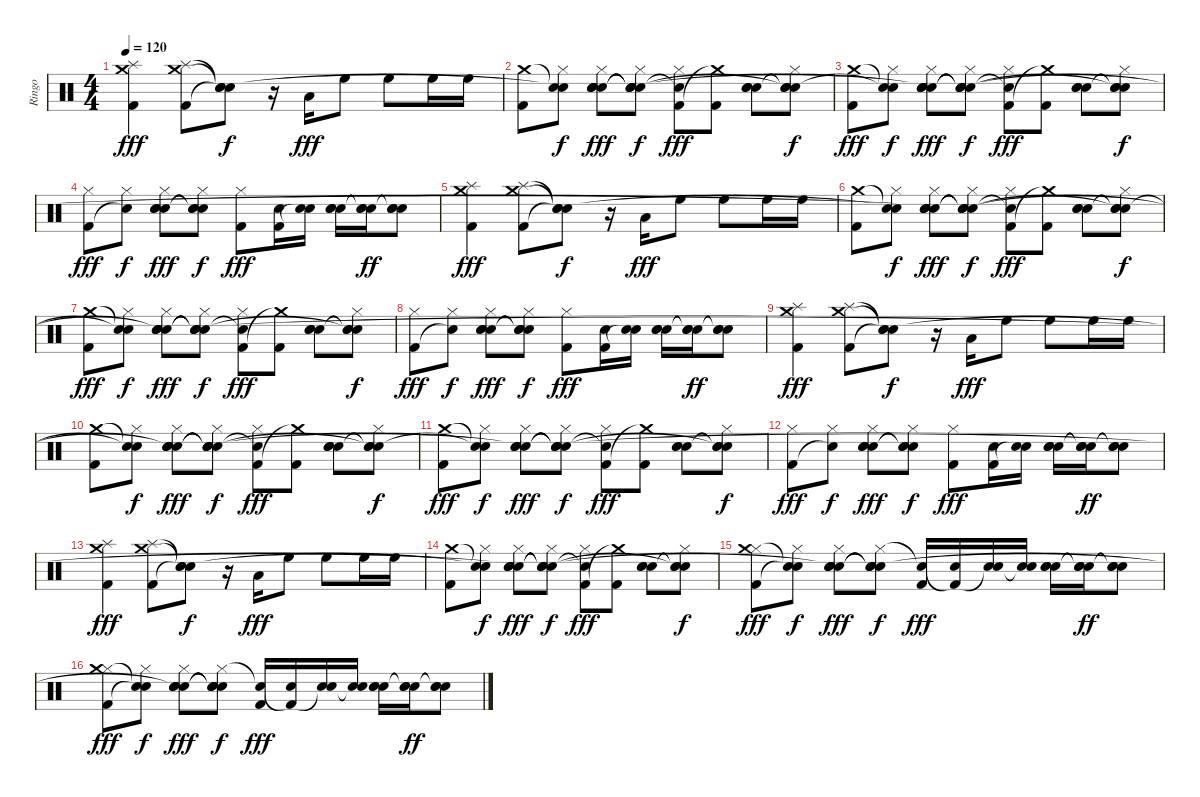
\track ("Ringo" "Ringo") {instrument percussion}
\staff {score}
\articulation defaults
\ts (4 4)
\tempo 120
\clef neutral
\ks c
("Crash medium (hit)" "Splash (hit)" "Kick (hit) 2").4{dy fff} ("Crash medium (hit)" "Splash (hit)" "Kick (hit) 2").8 ("Snare (hit)"{t} "Snare (hit)"{t} "Snare (hit)"{t}).8{dy f} r.16 "Low Floor Tom (hit)".16{dy fff} "High Floor Tom (hit)".8 "High Floor Tom (hit)".8 "High Floor Tom (hit)".16 "High Floor Tom (hit)".16 |
("Kick (hit) 2" "Crash medium (hit)").8 ("Hi-Hat (closed)" "Snare (hit)"{t} "Snare (hit)"{t}).8{dy f} ("Hand Clap (hit)" "Hi-Hat (closed)" "Electric Snare (hit)" "Hand Clap (hit)" "Snare (hit)"{t}).8{dy fff} ("Snare (hit)"{t} "Hi-Hat (closed)" "Snare (hit)"{t} "Snare (hit)"{t} "Snare (hit)"{t}).8{dy f} ("Hi-Hat (closed)" "Kick (hit) 2" "Snare (hit)"{t}).8{dy fff} ("Kick (hit) 2" "Crash medium (hit)"{t}).8 ("Hand Clap (hit)" "Electric Snare (hit)" "Hand Clap (hit)").8 ("Snare (hit)"{t} "Hi-Hat (closed)" "Snare (hit)"{t} "Snare (hit)"{t}).8{dy f} |
("Kick (hit) 2" "Crash medium (hit)").8{dy fff} ("Hi-Hat (closed)" "Snare (hit)"{t} "Snare (hit)"{t}).8{dy f} ("Hand Clap (hit)" "Hi-Hat (closed)" "Electric Snare (hit)" "Hand Clap (hit)" "Snare (hit)"{t}).8{dy fff} ("Snare (hit)"{t} "Hi-Hat (closed)" "Snare (hit)"{t} "Snare (hit)"{t} "Snare (hit)"{t}).8{dy f} ("Hi-Hat (closed)" "Kick (hit) 2" "Snare (hit)"{t}).8{dy fff} ("Kick (hit) 2" "Crash medium (hit)"{t}).8 ("Hand Clap (hit)" "Electric Snare (hit)" "Hand Clap (hit)").8 ("Snare (hit)"{t} "Hi-Hat (closed)" "Snare (hit)"{t} "Snare (hit)"{t}).8{dy f} |
("Hi-Hat (closed)" "Kick (hit) 2").8{dy fff} ("Hi-Hat (closed)" "Snare (hit)"{t}).8{dy f} ("Hand Clap (hit)" "Hi-Hat (closed)" "Electric Snare (hit)" "Hand Clap (hit)").8{dy fff} ("Snare (hit)"{t} "Hi-Hat (closed)" "Snare (hit)"{t} "Snare (hit)"{t}).8{dy f} ("Hi-Hat (closed)" "Kick (hit) 2").8{dy fff} ("Electric Snare (hit)" "Kick (hit) 2").16 ("Electric Snare (hit)" "Snare (hit)"{t}).16 ("Hand Clap (hit)" "Electric Snare (hit)" "Hand Clap (hit)").16 ("Snare (hit)"{t} "Electric Snare (hit)" "Snare (hit)"{t}).16{dy ff} ("Snare (hit)"{t} "Electric Snare (hit)" "Snare (hit)"{t}).8 |
("Crash medium (hit)" "Splash (hit)" "Kick (hit) 2").4{dy fff} ("Crash medium (hit)" "Splash (hit)" "Kick (hit) 2").8 ("Snare (hit)"{t} "Snare (hit)"{t} "Snare (hit)"{t}).8{dy f} r.16 "Low Floor Tom (hit)".16{dy fff} "High Floor Tom (hit)".8 "High Floor Tom (hit)".8 "High Floor Tom (hit)".16 "High Floor Tom (hit)".16 |
("Kick (hit) 2" "Crash medium (hit)").8 ("Hi-Hat (closed)" "Snare (hit)"{t} "Snare (hit)"{t}).8{dy f} ("Hand Clap (hit)" "Hi-Hat (closed)" "Electric Snare (hit)" "Hand Clap (hit)" "Snare (hit)"{t}).8{dy fff} ("Snare (hit)"{t} "Hi-Hat (closed)" "Snare (hit)"{t} "Snare (hit)"{t} "Snare (hit)"{t}).8{dy f} ("Hi-Hat (closed)" "Kick (hit) 2" "Snare (hit)"{t}).8{dy fff} ("Kick (hit) 2" "Crash medium (hit)"{t}).8 ("Hand Clap (hit)" "Electric Snare (hit)" "Hand Clap (hit)").8 ("Snare (hit)"{t} "Hi-Hat (closed)" "Snare (hit)"{t} "Snare (hit)"{t}).8{dy f} |
("Kick (hit) 2" "Crash medium (hit)").8{dy fff} ("Hi-Hat (closed)" "Snare (hit)"{t} "Snare (hit)"{t}).8{dy f} ("Hand Clap (hit)" "Hi-Hat (closed)" "Electric Snare (hit)" "Hand Clap (hit)" "Snare (hit)"{t}).8{dy fff} ("Snare (hit)"{t} "Hi-Hat (closed)" "Snare (hit)"{t} "Snare (hit)"{t} "Snare (hit)"{t}).8{dy f} ("Hi-Hat (closed)" "Kick (hit) 2" "Snare (hit)"{t}).8{dy fff} ("Kick (hit) 2" "Crash medium (hit)"{t}).8 ("Hand Clap (hit)" "Electric Snare (hit)" "Hand Clap (hit)").8 ("Snare (hit)"{t} "Hi-Hat (closed)" "Snare (hit)"{t} "Snare (hit)"{t}).8{dy f} |
("Hi-Hat (closed)" "Kick (hit) 2").8{dy fff} ("Hi-Hat (closed)" "Snare (hit)"{t}).8{dy f} ("Hand Clap (hit)" "Hi-Hat (closed)" "Electric Snare (hit)" "Hand Clap (hit)").8{dy fff} ("Snare (hit)"{t} "Hi-Hat (closed)" "Snare (hit)"{t} "Snare (hit)"{t}).8{dy f} ("Hi-Hat (closed)" "Kick (hit) 2").8{dy fff} ("Electric Snare (hit)" "Kick (hit) 2").16 ("Electric Snare (hit)" "Snare (hit)"{t}).16 ("Hand Clap (hit)" "Electric Snare (hit)" "Hand Clap (hit)").16 ("Snare (hit)"{t} "Electric Snare (hit)" "Snare (hit)"{t}).16{dy ff} ("Snare (hit)"{t} "Electric Snare (hit)" "Snare (hit)"{t}).8 |
("Crash medium (hit)" "Splash (hit)" "Kick (hit) 2").4{dy fff} ("Crash medium (hit)" "Splash (hit)" "Kick (hit) 2").8 ("Snare (hit)"{t} "Snare (hit)"{t} "Snare (hit)"{t}).8{dy f} r.16 "Low Floor Tom (hit)".16{dy fff} "High Floor Tom (hit)".8 "High Floor Tom (hit)".8 "High Floor Tom (hit)".16 "High Floor Tom (hit)".16 |
("Kick (hit) 2" "Crash medium (hit)").8 ("Hi-Hat (closed)" "Snare (hit)"{t} "Snare (hit)"{t}).8{dy f} ("Hand Clap (hit)" "Hi-Hat (closed)" "Electric Snare (hit)" "Hand Clap (hit)" "Snare (hit)"{t}).8{dy fff} ("Snare (hit)"{t} "Hi-Hat (closed)" "Snare (hit)"{t} "Snare (hit)"{t} "Snare (hit)"{t}).8{dy f} ("Hi-Hat (closed)" "Kick (hit) 2" "Snare (hit)"{t}).8{dy fff} ("Kick (hit) 2" "Crash medium (hit)"{t}).8 ("Hand Clap (hit)" "Electric Snare (hit)" "Hand Clap (hit)").8 ("Snare (hit)"{t} "Hi-Hat (closed)" "Snare (hit)"{t} "Snare (hit)"{t}).8{dy f} |
("Kick (hit) 2" "Crash medium (hit)").8{dy fff} ("Hi-Hat (closed)" "Snare (hit)"{t} "Snare (hit)"{t}).8{dy f} ("Hand Clap (hit)" "Hi-Hat (closed)" "Electric Snare (hit)" "Hand Clap (hit)" "Snare (hit)"{t}).8{dy fff} ("Snare (hit)"{t} "Hi-Hat (closed)" "Snare (hit)"{t} "Snare (hit)"{t} "Snare (hit)"{t}).8{dy f} ("Hi-Hat (closed)" "Kick (hit) 2" "Snare (hit)"{t}).8{dy fff} ("Kick (hit) 2" "Crash medium (hit)"{t}).8 ("Hand Clap (hit)" "Electric Snare (hit)" "Hand Clap (hit)").8 ("Snare (hit)"{t} "Hi-Hat (closed)" "Snare (hit)"{t} "Snare (hit)"{t}).8{dy f} |
("Hi-Hat (closed)" "Kick (hit) 2").8{dy fff} ("Hi-Hat (closed)" "Snare (hit)"{t}).8{dy f} ("Hand Clap (hit)" "Hi-Hat (closed)" "Electric Snare (hit)" "Hand Clap (hit)").8{dy fff} ("Snare (hit)"{t} "Hi-Hat (closed)" "Snare (hit)"{t} "Snare (hit)"{t}).8{dy f} ("Hi-Hat (closed)" "Kick (hit) 2").8{dy fff} ("Electric Snare (hit)" "Kick (hit) 2").16 ("Electric Snare (hit)" "Snare (hit)"{t}).16 ("Hand Clap (hit)" "Electric Snare (hit)" "Hand Clap (hit)").16 ("Snare (hit)"{t} "Electric Snare (hit)" "Snare (hit)"{t}).16{dy ff} ("Snare (hit)"{t} "Electric Snare (hit)" "Snare (hit)"{t}).8 |
("Crash medium (hit)" "Splash (hit)" "Kick (hit) 2").4{dy fff} ("Crash medium (hit)" "Splash (hit)" "Kick (hit) 2").8 ("Snare (hit)"{t} "Snare (hit)"{t} "Snare (hit)"{t}).8{dy f} r.16 "Low Floor Tom (hit)".16{dy fff} "High Floor Tom (hit)".8 "High Floor Tom (hit)".8 "High Floor Tom (hit)".16 "High Floor Tom (hit)".16 |
("Kick (hit) 2" "Crash medium (hit)").8 ("Hi-Hat (closed)" "Snare (hit)"{t} "Snare (hit)"{t}).8{dy f} ("Hand Clap (hit)" "Hi-Hat (closed)" "Electric Snare (hit)" "Hand Clap (hit)" "Snare (hit)"{t}).8{dy fff} ("Snare (hit)"{t} "Hi-Hat (closed)" "Snare (hit)"{t} "Snare (hit)"{t} "Snare (hit)"{t}).8{dy f} ("Hi-Hat (closed)" "Kick (hit) 2" "Snare (hit)"{t}).8{dy fff} ("Kick (hit) 2" "Crash medium (hit)"{t}).8 ("Hand Clap (hit)" "Electric Snare (hit)" "Hand Clap (hit)").8 ("Snare (hit)"{t} "Hi-Hat (closed)" "Snare (hit)"{t} "Snare (hit)"{t}).8{dy f} |
("Hi-Hat (closed)" "Kick (hit) 2" "Crash medium (hit)").8{dy fff} ("Hi-Hat (closed)" "Snare (hit)"{t} "Snare (hit)"{t}).8{dy f} ("Hand Clap (hit)" "Hi-Hat (closed)" "Electric Snare (hit)" "Hand Clap (hit)" "Snare (hit)"{t}).8{dy fff} ("Snare (hit)"{t} "Hi-Hat (closed)" "Snare (hit)"{t} "Snare (hit)"{t} "Snare (hit)"{t}).8{dy f} ("Kick (hit) 2" "Snare (hit)"{t}).16{dy fff} ("Electric Snare (hit)" "Kick (hit) 2"{t}).16 ("Electric Snare (hit)" "Snare (hit)"{t}).16 ("Electric Snare (hit)" "Electric Snare (hit)"{t}).16 ("Hand Clap (hit)" "Electric Snare (hit)" "Hand Clap (hit)").16 ("Snare (hit)"{t} "Electric Snare (hit)" "Snare (hit)"{t}).16{dy ff} ("Snare (hit)"{t} "Electric Snare (hit)" "Snare (hit)"{t}).8 |
("Hi-Hat (closed)" "Kick (hit) 2" "Crash medium (hit)").8{dy fff} ("Hi-Hat (closed)" "Snare (hit)"{t} "Snare (hit)"{t}).8{dy f} ("Hand Clap (hit)" "Hi-Hat (closed)" "Electric Snare (hit)" "Hand Clap (hit)" "Snare (hit)"{t}).8{dy fff} ("Snare (hit)"{t} "Hi-Hat (closed)" "Snare (hit)"{t} "Snare (hit)"{t} "Snare (hit)"{t}).8{dy f} ("Kick (hit) 2" "Snare (hit)"{t}).16{dy fff} ("Electric Snare (hit)" "Kick (hit) 2"{t}).16 ("Electric Snare (hit)" "Snare (hit)"{t}).16 ("Electric Snare (hit)" "Electric Snare (hit)"{t}).16 ("Hand Clap (hit)" "Electric Snare (hit)" "Hand Clap (hit)").16 ("Snare (hit)"{t} "Electric Snare (hit)" "Snare (hit)"{t}).16{dy ff} ("Snare (hit)"{t} "Electric Snare (hit)" "Snare (hit)"{t}).8
